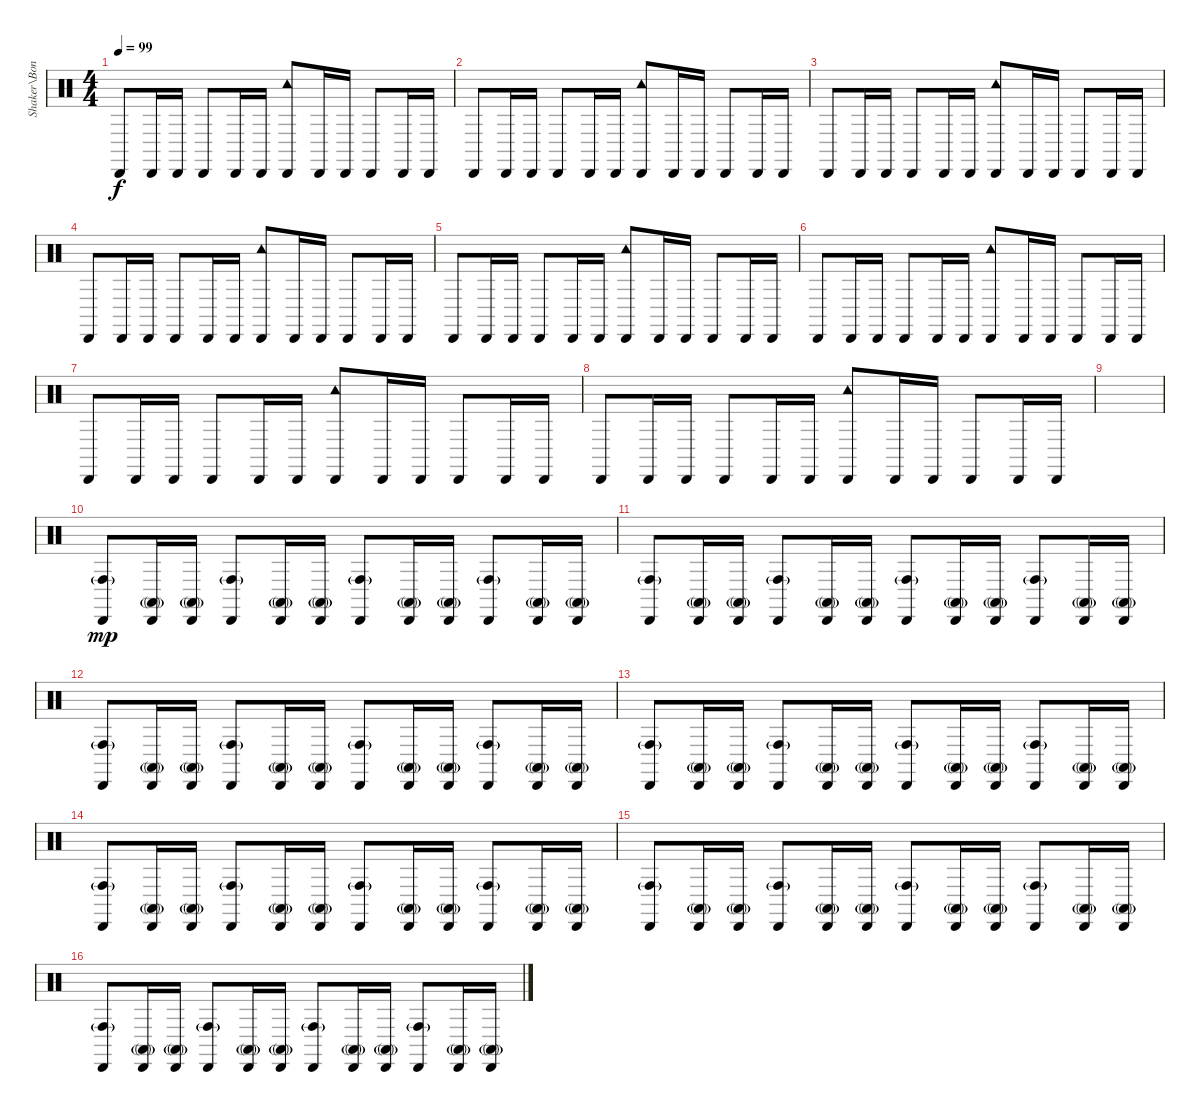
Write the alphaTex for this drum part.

\track ("Shaker\\Bongos" "Shaker\\Bon") {instrument percussion}
\staff {score}
\articulation defaults
\ts (4 4)
\tempo 99
\clef neutral
\ks c "Cabasa (hit)".8{dy f} "Cabasa (hit)".16 "Cabasa (hit)".16 "Cabasa (hit)".8 "Cabasa (hit)".16 "Cabasa (hit)".16
("Cabasa (hit)" "Tambourine (hit)").8 "Cabasa (hit)".16 "Cabasa (hit)".16 "Cabasa (hit)".8 "Cabasa (hit)".16 "Cabasa (hit)".16 |
"Cabasa (hit)".8 "Cabasa (hit)".16 "Cabasa (hit)".16 "Cabasa (hit)".8 "Cabasa (hit)".16 "Cabasa (hit)".16 ("Cabasa (hit)" "Tambourine (hit)").8 "Cabasa (hit)".16 "Cabasa (hit)".16 "Cabasa (hit)".8 "Cabasa (hit)".16 "Cabasa (hit)".16 |
"Cabasa (hit)".8 "Cabasa (hit)".16 "Cabasa (hit)".16 "Cabasa (hit)".8 "Cabasa (hit)".16 "Cabasa (hit)".16 ("Cabasa (hit)" "Tambourine (hit)").8 "Cabasa (hit)".16 "Cabasa (hit)".16 "Cabasa (hit)".8 "Cabasa (hit)".16 "Cabasa (hit)".16 |
"Cabasa (hit)".8 "Cabasa (hit)".16 "Cabasa (hit)".16 "Cabasa (hit)".8 "Cabasa (hit)".16 "Cabasa (hit)".16 ("Cabasa (hit)" "Tambourine (hit)").8 "Cabasa (hit)".16 "Cabasa (hit)".16 "Cabasa (hit)".8 "Cabasa (hit)".16 "Cabasa (hit)".16 |
"Cabasa (hit)".8 "Cabasa (hit)".16 "Cabasa (hit)".16 "Cabasa (hit)".8 "Cabasa (hit)".16 "Cabasa (hit)".16 ("Cabasa (hit)" "Tambourine (hit)").8 "Cabasa (hit)".16 "Cabasa (hit)".16 "Cabasa (hit)".8 "Cabasa (hit)".16 "Cabasa (hit)".16 |
"Cabasa (hit)".8 "Cabasa (hit)".16 "Cabasa (hit)".16 "Cabasa (hit)".8 "Cabasa (hit)".16 "Cabasa (hit)".16 ("Cabasa (hit)" "Tambourine (hit)").8 "Cabasa (hit)".16 "Cabasa (hit)".16 "Cabasa (hit)".8 "Cabasa (hit)".16 "Cabasa (hit)".16 |
"Cabasa (hit)".8 "Cabasa (hit)".16 "Cabasa (hit)".16 "Cabasa (hit)".8 "Cabasa (hit)".16 "Cabasa (hit)".16 ("Cabasa (hit)" "Tambourine (hit)").8 "Cabasa (hit)".16 "Cabasa (hit)".16 "Cabasa (hit)".8 "Cabasa (hit)".16 "Cabasa (hit)".16 |
"Cabasa (hit)".8 "Cabasa (hit)".16 "Cabasa (hit)".16 "Cabasa (hit)".8 "Cabasa (hit)".16 "Cabasa (hit)".16 ("Cabasa (hit)" "Tambourine (hit)").8 "Cabasa (hit)".16 "Cabasa (hit)".16 "Cabasa (hit)".8 "Cabasa (hit)".16 "Cabasa (hit)".16 |
|
("Cabasa (hit)" "Conga high (hit)"{g}).8{dy mp} ("Cabasa (hit)" "Conga high (mute)"{g}).16 ("Cabasa (hit)" "Conga high (mute)"{g}).16 ("Cabasa (hit)" "Conga high (hit)"{g}).8 ("Cabasa (hit)" "Conga high (mute)"{g}).16 ("Cabasa (hit)" "Conga high (mute)"{g}).16 ("Cabasa (hit)" "Conga high (hit)"{g}).8 ("Cabasa (hit)" "Conga high (mute)"{g}).16 ("Cabasa (hit)" "Conga high (mute)"{g}).16 ("Cabasa (hit)" "Conga high (hit)"{g}).8 ("Cabasa (hit)" "Conga high (mute)"{g}).16 ("Cabasa (hit)" "Conga high (mute)"{g}).16 |
("Cabasa (hit)" "Conga high (hit)"{g}).8 ("Cabasa (hit)" "Conga high (mute)"{g}).16 ("Cabasa (hit)" "Conga high (mute)"{g}).16 ("Cabasa (hit)" "Conga high (hit)"{g}).8 ("Cabasa (hit)" "Conga high (mute)"{g}).16 ("Cabasa (hit)" "Conga high (mute)"{g}).16 ("Cabasa (hit)" "Conga high (hit)"{g}).8 ("Cabasa (hit)" "Conga high (mute)"{g}).16 ("Cabasa (hit)" "Conga high (mute)"{g}).16 ("Cabasa (hit)" "Conga high (hit)"{g}).8 ("Cabasa (hit)" "Conga high (mute)"{g}).16 ("Cabasa (hit)" "Conga high (mute)"{g}).16 |
("Cabasa (hit)" "Conga high (hit)"{g}).8 ("Cabasa (hit)" "Conga high (mute)"{g}).16 ("Cabasa (hit)" "Conga high (mute)"{g}).16 ("Cabasa (hit)" "Conga high (hit)"{g}).8 ("Cabasa (hit)" "Conga high (mute)"{g}).16 ("Cabasa (hit)" "Conga high (mute)"{g}).16 ("Cabasa (hit)" "Conga high (hit)"{g}).8 ("Cabasa (hit)" "Conga high (mute)"{g}).16 ("Cabasa (hit)" "Conga high (mute)"{g}).16 ("Cabasa (hit)" "Conga high (hit)"{g}).8 ("Cabasa (hit)" "Conga high (mute)"{g}).16 ("Cabasa (hit)" "Conga high (mute)"{g}).16 |
("Cabasa (hit)" "Conga high (hit)"{g}).8 ("Cabasa (hit)" "Conga high (mute)"{g}).16 ("Cabasa (hit)" "Conga high (mute)"{g}).16 ("Cabasa (hit)" "Conga high (hit)"{g}).8 ("Cabasa (hit)" "Conga high (mute)"{g}).16 ("Cabasa (hit)" "Conga high (mute)"{g}).16 ("Cabasa (hit)" "Conga high (hit)"{g}).8 ("Cabasa (hit)" "Conga high (mute)"{g}).16 ("Cabasa (hit)" "Conga high (mute)"{g}).16 ("Cabasa (hit)" "Conga high (hit)"{g}).8 ("Cabasa (hit)" "Conga high (mute)"{g}).16 ("Cabasa (hit)" "Conga high (mute)"{g}).16 |
("Cabasa (hit)" "Conga high (hit)"{g}).8 ("Cabasa (hit)" "Conga high (mute)"{g}).16 ("Cabasa (hit)" "Conga high (mute)"{g}).16 ("Cabasa (hit)" "Conga high (hit)"{g}).8 ("Cabasa (hit)" "Conga high (mute)"{g}).16 ("Cabasa (hit)" "Conga high (mute)"{g}).16 ("Cabasa (hit)" "Conga high (hit)"{g}).8 ("Cabasa (hit)" "Conga high (mute)"{g}).16 ("Cabasa (hit)" "Conga high (mute)"{g}).16 ("Cabasa (hit)" "Conga high (hit)"{g}).8 ("Cabasa (hit)" "Conga high (mute)"{g}).16 ("Cabasa (hit)" "Conga high (mute)"{g}).16 |
("Cabasa (hit)" "Conga high (hit)"{g}).8 ("Cabasa (hit)" "Conga high (mute)"{g}).16 ("Cabasa (hit)" "Conga high (mute)"{g}).16 ("Cabasa (hit)" "Conga high (hit)"{g}).8 ("Cabasa (hit)" "Conga high (mute)"{g}).16 ("Cabasa (hit)" "Conga high (mute)"{g}).16 ("Cabasa (hit)" "Conga high (hit)"{g}).8 ("Cabasa (hit)" "Conga high (mute)"{g}).16 ("Cabasa (hit)" "Conga high (mute)"{g}).16 ("Cabasa (hit)" "Conga high (hit)"{g}).8 ("Cabasa (hit)" "Conga high (mute)"{g}).16 ("Cabasa (hit)" "Conga high (mute)"{g}).16 |
("Cabasa (hit)" "Conga high (hit)"{g}).8 ("Cabasa (hit)" "Conga high (mute)"{g}).16 ("Cabasa (hit)" "Conga high (mute)"{g}).16 ("Cabasa (hit)" "Conga high (hit)"{g}).8 ("Cabasa (hit)" "Conga high (mute)"{g}).16 ("Cabasa (hit)" "Conga high (mute)"{g}).16 ("Cabasa (hit)" "Conga high (hit)"{g}).8 ("Cabasa (hit)" "Conga high (mute)"{g}).16 ("Cabasa (hit)" "Conga high (mute)"{g}).16 ("Cabasa (hit)" "Conga high (hit)"{g}).8 ("Cabasa (hit)" "Conga high (mute)"{g}).16 ("Cabasa (hit)" "Conga high (mute)"{g}).16
